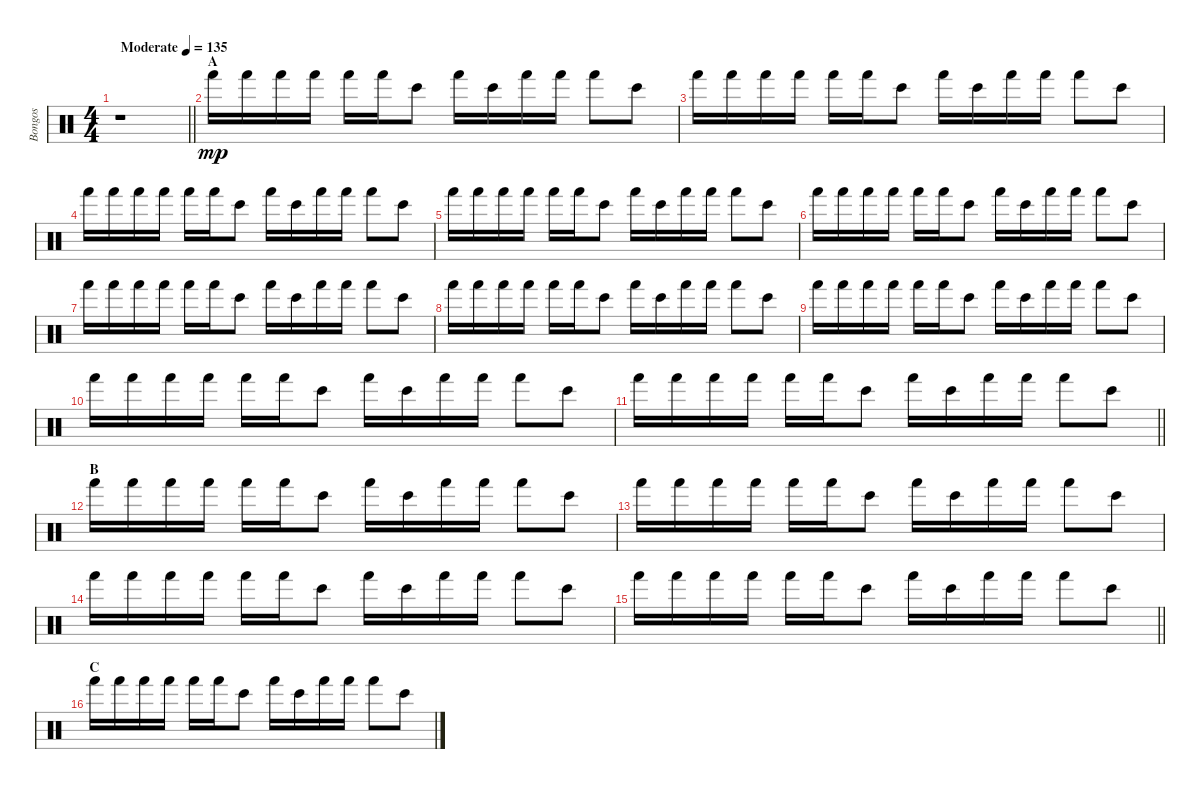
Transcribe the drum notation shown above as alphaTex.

\track ("Bongos" "Bongos") {instrument percussion}
\staff {score}
\articulation defaults
\ts (4 4)
\tempo (135 "Moderate")
\clef neutral
\barLineRight lightlight
\ks c
r.1{dy mp} |
\section ("" "A")
"Hand (hit)".16 "Hand (hit)".16 "Hand (hit)".16 "Hand (hit)".16 "Hand (hit)".16 "Hand (hit)".16 "Bongo High (hit)".8 "Hand (hit)".16 "Bongo High (hit)".16 "Hand (hit)".16 "Hand (hit)".16 "Hand (hit)".8 "Bongo High (hit)".8 |
"Hand (hit)".16 "Hand (hit)".16 "Hand (hit)".16 "Hand (hit)".16 "Hand (hit)".16 "Hand (hit)".16 "Bongo High (hit)".8 "Hand (hit)".16 "Bongo High (hit)".16 "Hand (hit)".16 "Hand (hit)".16 "Hand (hit)".8 "Bongo High (hit)".8 |
"Hand (hit)".16 "Hand (hit)".16 "Hand (hit)".16 "Hand (hit)".16 "Hand (hit)".16 "Hand (hit)".16 "Bongo High (hit)".8 "Hand (hit)".16 "Bongo High (hit)".16 "Hand (hit)".16 "Hand (hit)".16 "Hand (hit)".8 "Bongo High (hit)".8 |
"Hand (hit)".16 "Hand (hit)".16 "Hand (hit)".16 "Hand (hit)".16 "Hand (hit)".16 "Hand (hit)".16 "Bongo High (hit)".8 "Hand (hit)".16 "Bongo High (hit)".16 "Hand (hit)".16 "Hand (hit)".16 "Hand (hit)".8 "Bongo High (hit)".8 |
"Hand (hit)".16 "Hand (hit)".16 "Hand (hit)".16 "Hand (hit)".16 "Hand (hit)".16 "Hand (hit)".16 "Bongo High (hit)".8 "Hand (hit)".16 "Bongo High (hit)".16 "Hand (hit)".16 "Hand (hit)".16 "Hand (hit)".8 "Bongo High (hit)".8 |
"Hand (hit)".16 "Hand (hit)".16 "Hand (hit)".16 "Hand (hit)".16 "Hand (hit)".16 "Hand (hit)".16 "Bongo High (hit)".8 "Hand (hit)".16 "Bongo High (hit)".16 "Hand (hit)".16 "Hand (hit)".16 "Hand (hit)".8 "Bongo High (hit)".8 |
"Hand (hit)".16 "Hand (hit)".16 "Hand (hit)".16 "Hand (hit)".16 "Hand (hit)".16 "Hand (hit)".16 "Bongo High (hit)".8 "Hand (hit)".16 "Bongo High (hit)".16 "Hand (hit)".16 "Hand (hit)".16 "Hand (hit)".8 "Bongo High (hit)".8 |
"Hand (hit)".16 "Hand (hit)".16 "Hand (hit)".16 "Hand (hit)".16 "Hand (hit)".16 "Hand (hit)".16 "Bongo High (hit)".8 "Hand (hit)".16 "Bongo High (hit)".16 "Hand (hit)".16 "Hand (hit)".16 "Hand (hit)".8 "Bongo High (hit)".8 |
"Hand (hit)".16 "Hand (hit)".16 "Hand (hit)".16 "Hand (hit)".16 "Hand (hit)".16 "Hand (hit)".16 "Bongo High (hit)".8 "Hand (hit)".16 "Bongo High (hit)".16 "Hand (hit)".16 "Hand (hit)".16 "Hand (hit)".8 "Bongo High (hit)".8 |
\barLineRight lightlight "Hand (hit)".16 "Hand (hit)".16 "Hand (hit)".16 "Hand (hit)".16 "Hand (hit)".16 "Hand (hit)".16 "Bongo High (hit)".8 "Hand (hit)".16 "Bongo High (hit)".16 "Hand (hit)".16 "Hand (hit)".16 "Hand (hit)".8 "Bongo High (hit)".8
|
\section ("" "B")
"Hand (hit)".16 "Hand (hit)".16 "Hand (hit)".16 "Hand (hit)".16 "Hand (hit)".16 "Hand (hit)".16 "Bongo High (hit)".8 "Hand (hit)".16 "Bongo High (hit)".16 "Hand (hit)".16 "Hand (hit)".16 "Hand (hit)".8 "Bongo High (hit)".8 |
"Hand (hit)".16 "Hand (hit)".16 "Hand (hit)".16 "Hand (hit)".16 "Hand (hit)".16 "Hand (hit)".16 "Bongo High (hit)".8 "Hand (hit)".16 "Bongo High (hit)".16 "Hand (hit)".16 "Hand (hit)".16 "Hand (hit)".8 "Bongo High (hit)".8 |
"Hand (hit)".16 "Hand (hit)".16 "Hand (hit)".16 "Hand (hit)".16 "Hand (hit)".16 "Hand (hit)".16 "Bongo High (hit)".8 "Hand (hit)".16 "Bongo High (hit)".16 "Hand (hit)".16 "Hand (hit)".16 "Hand (hit)".8 "Bongo High (hit)".8 |
\barLineRight lightlight "Hand (hit)".16 "Hand (hit)".16 "Hand (hit)".16 "Hand (hit)".16 "Hand (hit)".16 "Hand (hit)".16 "Bongo High (hit)".8 "Hand (hit)".16 "Bongo High (hit)".16 "Hand (hit)".16 "Hand (hit)".16 "Hand (hit)".8 "Bongo High (hit)".8
|
\section ("" "C")
"Hand (hit)".16 "Hand (hit)".16 "Hand (hit)".16 "Hand (hit)".16 "Hand (hit)".16 "Hand (hit)".16 "Bongo High (hit)".8 "Hand (hit)".16 "Bongo High (hit)".16 "Hand (hit)".16 "Hand (hit)".16 "Hand (hit)".8 "Bongo High (hit)".8
